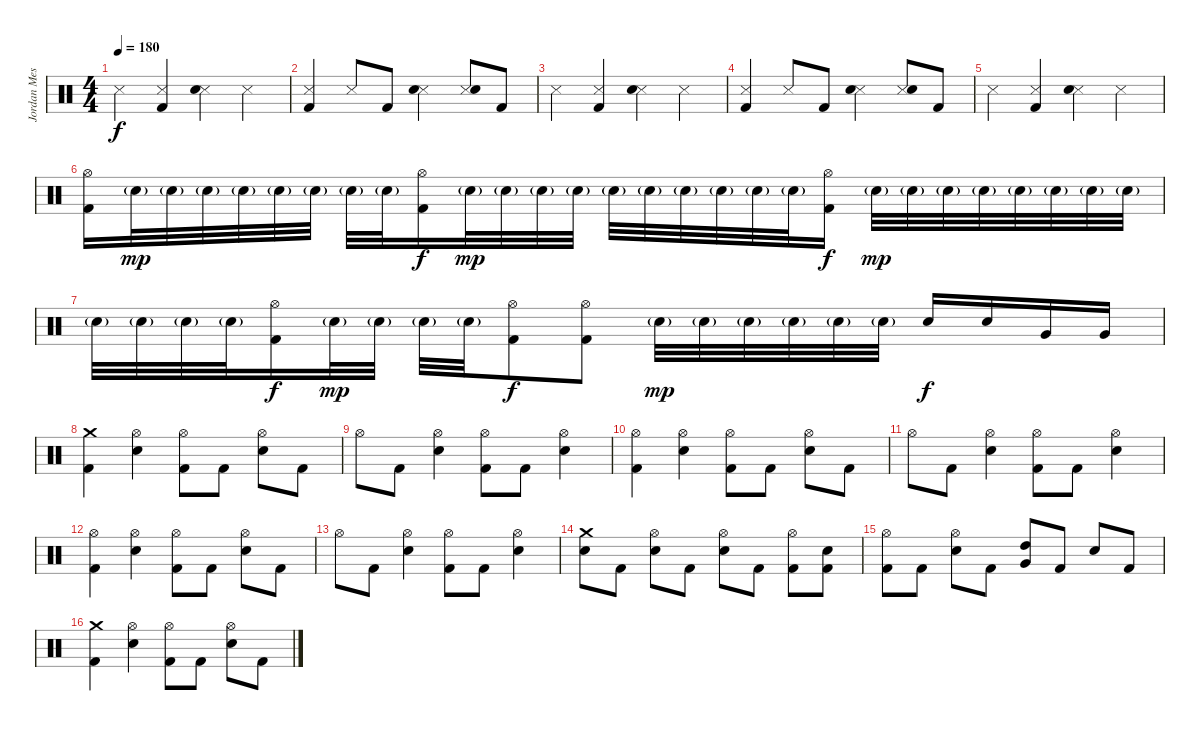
\track ("Jordan Messer " "Jordan Mes") {instrument percussion}
\staff {score}
\articulation defaults
\ts (4 4)
\tempo 180
\clef neutral
\ks c "Snare (side stick) 3".4{dy f}
("Snare (side stick) 3" "Kick (hit) 2").4 ("Snare (side stick) 3" "Snare (hit) 2").4 "Snare (side stick) 3".4 |
("Snare (side stick) 3" "Kick (hit) 2").4 "Snare (side stick) 3".8 "Kick (hit) 2".8 ("Snare (side stick) 3" "Snare (hit) 2").4 ("Snare (side stick) 3" "Snare (hit) 2").8 "Kick (hit) 2".8 |
"Snare (side stick) 3".4 ("Snare (side stick) 3" "Kick (hit) 2").4 ("Snare (side stick) 3" "Snare (hit) 2").4 "Snare (side stick) 3".4 |
("Snare (side stick) 3" "Kick (hit) 2").4 "Snare (side stick) 3".8 "Kick (hit) 2".8 ("Snare (side stick) 3" "Snare (hit) 2").4 ("Snare (side stick) 3" "Snare (hit) 2").8 "Kick (hit) 2".8 |
"Snare (side stick) 3".4 ("Snare (side stick) 3" "Kick (hit) 2").4 ("Snare (side stick) 3" "Snare (hit) 2").4 "Snare (side stick) 3".4 |
("Hi-Hat (open)" "Kick (hit) 2").16 "Electric Snare (hit)"{g}.32{dy mp} "Electric Snare (hit)"{g}.32 "Electric Snare (hit)"{g}.32 "Electric Snare (hit)"{g}.32 "Electric Snare (hit)"{g}.32 "Electric Snare (hit)"{g}.32 "Electric Snare (hit)"{g}.32 "Electric Snare (hit)"{g}.32 ("Hi-Hat (open)" "Kick (hit) 2").16{dy f} "Electric Snare (hit)"{g}.32{dy mp} "Electric Snare (hit)"{g}.32 "Electric Snare (hit)"{g}.32 "Electric Snare (hit)"{g}.32 "Electric Snare (hit)"{g}.32 "Electric Snare (hit)"{g}.32 "Electric Snare (hit)"{g}.32 "Electric Snare (hit)"{g}.32 "Electric Snare (hit)"{g}.32 "Electric Snare (hit)"{g}.32 ("Hi-Hat (open)" "Kick (hit) 2").16{dy f} "Electric Snare (hit)"{g}.32{dy mp} "Electric Snare (hit)"{g}.32 "Electric Snare (hit)"{g}.32 "Electric Snare (hit)"{g}.32 "Electric Snare (hit)"{g}.32 "Electric Snare (hit)"{g}.32 "Electric Snare (hit)"{g}.32 "Electric Snare (hit)"{g}.32 |
"Electric Snare (hit)"{g}.32 "Electric Snare (hit)"{g}.32 "Electric Snare (hit)"{g}.32 "Electric Snare (hit)"{g}.32 ("Hi-Hat (open)" "Kick (hit) 2").16{dy f} "Electric Snare (hit)"{g}.32{dy mp} "Electric Snare (hit)"{g}.32 "Electric Snare (hit)"{g}.32 "Electric Snare (hit)"{g}.32 ("Hi-Hat (open)" "Kick (hit) 2").8{dy f} ("Hi-Hat (open)" "Kick (hit) 2").8 "Electric Snare (hit)"{g}.32{dy mp} "Electric Snare (hit)"{g}.32 "Electric Snare (hit)"{g}.32 "Electric Snare (hit)"{g}.32 "Electric Snare (hit)"{g}.32 "Electric Snare (hit)"{g}.32 "Snare (hit) 2".16{dy f} "Snare (hit) 2".16 "Very Low Tom (hit)".16 "Very Low Tom (hit)".16 |
("Crash medium (hit)" "Kick (hit) 2").4 ("Hi-Hat (open)" "Snare (hit) 2").4 ("Hi-Hat (open)" "Kick (hit) 2").8 "Kick (hit) 2".8 ("Hi-Hat (open)" "Snare (hit) 2").8 "Kick (hit) 2".8 |
"Hi-Hat (open)".8 "Kick (hit) 2".8 ("Hi-Hat (open)" "Snare (hit) 2").4 ("Hi-Hat (open)" "Kick (hit) 2").8 "Kick (hit) 2".8 ("Hi-Hat (open)" "Snare (hit) 2").4 |
("Hi-Hat (open)" "Kick (hit) 2").4 ("Hi-Hat (open)" "Snare (hit) 2").4 ("Hi-Hat (open)" "Kick (hit) 2").8 "Kick (hit) 2".8 ("Hi-Hat (open)" "Snare (hit) 2").8 "Kick (hit) 2".8 |
"Hi-Hat (open)".8 "Kick (hit) 2".8 ("Hi-Hat (open)" "Snare (hit) 2").4 ("Hi-Hat (open)" "Kick (hit) 2").8 "Kick (hit) 2".8 ("Hi-Hat (open)" "Snare (hit) 2").4 |
("Hi-Hat (open)" "Kick (hit) 2").4 ("Hi-Hat (open)" "Snare (hit) 2").4 ("Hi-Hat (open)" "Kick (hit) 2").8 "Kick (hit) 2".8 ("Hi-Hat (open)" "Snare (hit) 2").8 "Kick (hit) 2".8 |
"Hi-Hat (open)".8 "Kick (hit) 2".8 ("Hi-Hat (open)" "Snare (hit) 2").4 ("Hi-Hat (open)" "Kick (hit) 2").8 "Kick (hit) 2".8 ("Hi-Hat (open)" "Snare (hit) 2").4 |
("Crash medium (hit)" "Snare (hit) 2").8 "Kick (hit) 2".8 ("Hi-Hat (open)" "Snare (hit) 2").8 "Kick (hit) 2".8 ("Hi-Hat (open)" "Snare (hit) 2").8 "Kick (hit) 2".8 ("Hi-Hat (open)" "Kick (hit) 2").8 ("Snare (hit) 2" "Kick (hit) 2").8 |
("Hi-Hat (open)" "Kick (hit) 2").8 "Kick (hit) 2".8 ("Hi-Hat (open)" "Snare (hit) 2").8 "Kick (hit) 2".8 ("High Tom (hit)" "Very Low Tom (hit)").8 "Kick (hit) 2".8 "Snare (hit) 2".8 "Kick (hit) 2".8 |
("Crash medium (hit)" "Kick (hit) 2").4 ("Hi-Hat (open)" "Snare (hit) 2").4 ("Hi-Hat (open)" "Kick (hit) 2").8 "Kick (hit) 2".8 ("Hi-Hat (open)" "Snare (hit) 2").8 "Kick (hit) 2".8
